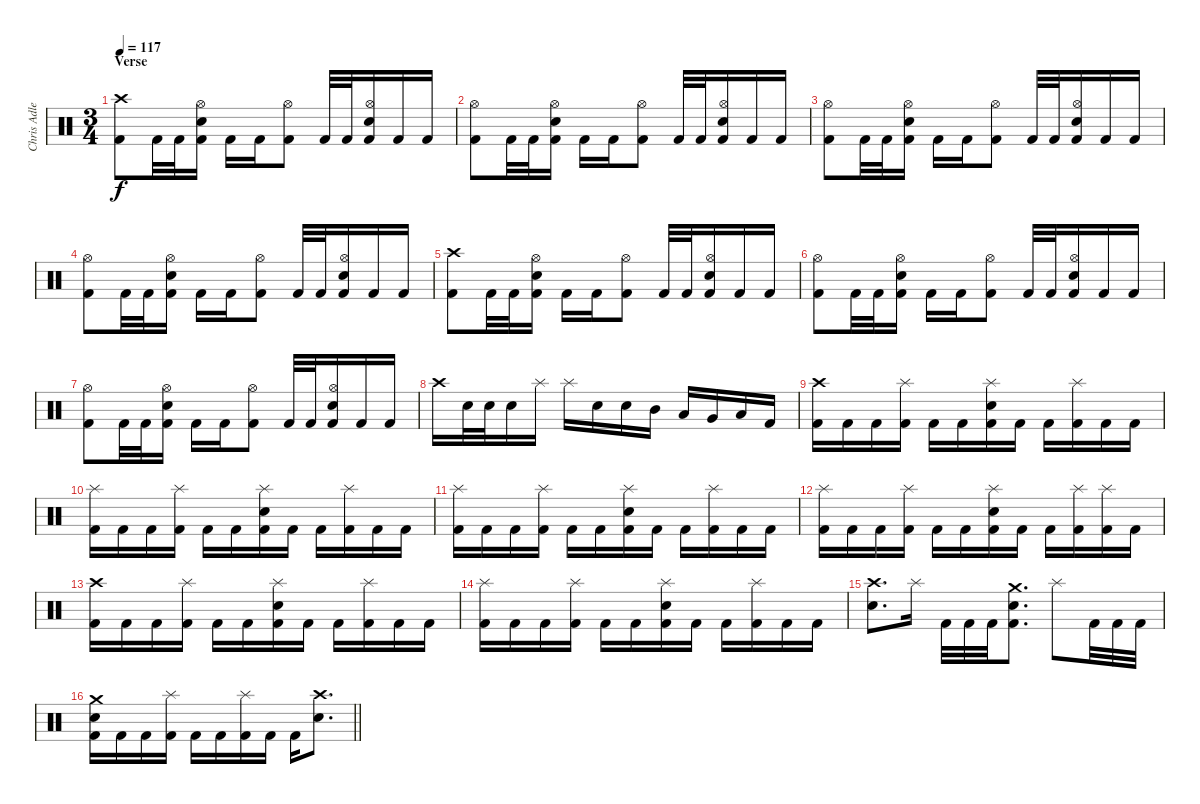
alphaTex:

\track ("Chris Adler" "Chris Adle") {instrument percussion}
\staff {score}
\articulation defaults
\ts (3 4)
\section ("" "Verse")
\tempo 117
\clef neutral
\ks c
("Crash high (hit)" "Kick (hit) 2").8{dy f} "Kick (hit) 2".32 "Kick (hit) 2".32 ("Hi-Hat (open)" "Electric Snare (hit)" "Kick (hit) 2").16 "Kick (hit) 2".16 "Kick (hit) 2".16 ("Hi-Hat (open)" "Kick (hit) 2").8 "Kick (hit) 2".32 "Kick (hit) 2".32 ("Hi-Hat (open)" "Electric Snare (hit)" "Kick (hit) 2").16 "Kick (hit) 2".16 "Kick (hit) 2".16 |
("Hi-Hat (open)" "Kick (hit) 2").8 "Kick (hit) 2".32 "Kick (hit) 2".32 ("Hi-Hat (open)" "Electric Snare (hit)" "Kick (hit) 2").16 "Kick (hit) 2".16 "Kick (hit) 2".16 ("Hi-Hat (open)" "Kick (hit) 2").8 "Kick (hit) 2".32 "Kick (hit) 2".32 ("Hi-Hat (open)" "Electric Snare (hit)" "Kick (hit) 2").16 "Kick (hit) 2".16 "Kick (hit) 2".16 |
("Hi-Hat (open)" "Kick (hit) 2").8 "Kick (hit) 2".32 "Kick (hit) 2".32 ("Hi-Hat (open)" "Electric Snare (hit)" "Kick (hit) 2").16 "Kick (hit) 2".16 "Kick (hit) 2".16 ("Hi-Hat (open)" "Kick (hit) 2").8 "Kick (hit) 2".32 "Kick (hit) 2".32 ("Hi-Hat (open)" "Electric Snare (hit)" "Kick (hit) 2").16 "Kick (hit) 2".16 "Kick (hit) 2".16 |
("Hi-Hat (open)" "Kick (hit) 2").8 "Kick (hit) 2".32 "Kick (hit) 2".32 ("Hi-Hat (open)" "Electric Snare (hit)" "Kick (hit) 2").16 "Kick (hit) 2".16 "Kick (hit) 2".16 ("Hi-Hat (open)" "Kick (hit) 2").8 "Kick (hit) 2".32 "Kick (hit) 2".32 ("Hi-Hat (open)" "Electric Snare (hit)" "Kick (hit) 2").16 "Kick (hit) 2".16 "Kick (hit) 2".16 |
("Crash high (hit)" "Kick (hit) 2").8 "Kick (hit) 2".32 "Kick (hit) 2".32 ("Hi-Hat (open)" "Electric Snare (hit)" "Kick (hit) 2").16 "Kick (hit) 2".16 "Kick (hit) 2".16 ("Hi-Hat (open)" "Kick (hit) 2").8 "Kick (hit) 2".32 "Kick (hit) 2".32 ("Hi-Hat (open)" "Electric Snare (hit)" "Kick (hit) 2").16 "Kick (hit) 2".16 "Kick (hit) 2".16 |
("Hi-Hat (open)" "Kick (hit) 2").8 "Kick (hit) 2".32 "Kick (hit) 2".32 ("Hi-Hat (open)" "Electric Snare (hit)" "Kick (hit) 2").16 "Kick (hit) 2".16 "Kick (hit) 2".16 ("Hi-Hat (open)" "Kick (hit) 2").8 "Kick (hit) 2".32 "Kick (hit) 2".32 ("Hi-Hat (open)" "Electric Snare (hit)" "Kick (hit) 2").16 "Kick (hit) 2".16 "Kick (hit) 2".16 |
("Hi-Hat (open)" "Kick (hit) 2").8 "Kick (hit) 2".32 "Kick (hit) 2".32 ("Hi-Hat (open)" "Electric Snare (hit)" "Kick (hit) 2").16 "Kick (hit) 2".16 "Kick (hit) 2".16 ("Hi-Hat (open)" "Kick (hit) 2").8 "Kick (hit) 2".32 "Kick (hit) 2".32 ("Hi-Hat (open)" "Electric Snare (hit)" "Kick (hit) 2").16 "Kick (hit) 2".16 "Kick (hit) 2".16 |
"Crash high (hit)".16 "Electric Snare (hit)".32 "Electric Snare (hit)".32 "Electric Snare (hit)".16 "Splash (hit)".16 "Splash (hit)".16 "Electric Snare (hit)".16 "Electric Snare (hit)".16 "Mid Tom (hit)".16 "Low Tom (hit)".16 "Very Low Tom (hit)".16 "Low Floor Tom (hit)".16 "Kick (hit) 2".16 |
("Crash high (hit)" "Kick (hit) 2").16 "Kick (hit) 2".16 "Kick (hit) 2".16 ("Splash (hit)" "Kick (hit) 2").16 "Kick (hit) 2".16 "Kick (hit) 2".16 ("Splash (hit)" "Electric Snare (hit)" "Kick (hit) 2").16 "Kick (hit) 2".16 "Kick (hit) 2".16 ("Splash (hit)" "Kick (hit) 2").16 "Kick (hit) 2".16 "Kick (hit) 2".16 |
("Splash (hit)" "Kick (hit) 2").16 "Kick (hit) 2".16 "Kick (hit) 2".16 ("Splash (hit)" "Kick (hit) 2").16 "Kick (hit) 2".16 "Kick (hit) 2".16 ("Splash (hit)" "Electric Snare (hit)" "Kick (hit) 2").16 "Kick (hit) 2".16 "Kick (hit) 2".16 ("Splash (hit)" "Kick (hit) 2").16 "Kick (hit) 2".16 "Kick (hit) 2".16 |
("Splash (hit)" "Kick (hit) 2").16 "Kick (hit) 2".16 "Kick (hit) 2".16 ("Splash (hit)" "Kick (hit) 2").16 "Kick (hit) 2".16 "Kick (hit) 2".16 ("Splash (hit)" "Electric Snare (hit)" "Kick (hit) 2").16 "Kick (hit) 2".16 "Kick (hit) 2".16 ("Splash (hit)" "Kick (hit) 2").16 "Kick (hit) 2".16 "Kick (hit) 2".16 |
("Splash (hit)" "Kick (hit) 2").16 "Kick (hit) 2".16 "Kick (hit) 2".16 ("Splash (hit)" "Kick (hit) 2").16 "Kick (hit) 2".16 "Kick (hit) 2".16 ("Splash (hit)" "Electric Snare (hit)" "Kick (hit) 2").16 "Kick (hit) 2".16 "Kick (hit) 2".16 ("Splash (hit)" "Kick (hit) 2").16 ("Splash (hit)" "Kick (hit) 2").16 "Kick (hit) 2".16 |
("Crash high (hit)" "Kick (hit) 2").16 "Kick (hit) 2".16 "Kick (hit) 2".16 ("Splash (hit)" "Kick (hit) 2").16 "Kick (hit) 2".16 "Kick (hit) 2".16 ("Splash (hit)" "Electric Snare (hit)" "Kick (hit) 2").16 "Kick (hit) 2".16 "Kick (hit) 2".16 ("Splash (hit)" "Kick (hit) 2").16 "Kick (hit) 2".16 "Kick (hit) 2".16 |
("Splash (hit)" "Kick (hit) 2").16 "Kick (hit) 2".16 "Kick (hit) 2".16 ("Splash (hit)" "Kick (hit) 2").16 "Kick (hit) 2".16 "Kick (hit) 2".16 ("Splash (hit)" "Electric Snare (hit)" "Kick (hit) 2").16 "Kick (hit) 2".16 "Kick (hit) 2".16 ("Splash (hit)" "Kick (hit) 2").16 "Kick (hit) 2".16 "Kick (hit) 2".16 |
("Crash high (hit)" "Electric Snare (hit)").8{d} "Splash (hit)".16 "Kick (hit) 2".32 "Kick (hit) 2".32 "Kick (hit) 2".32 ("Crash medium (hit)" "Electric Snare (hit)" "Kick (hit) 2").8{d} "Splash (hit)".8 "Kick (hit) 2".32 "Kick (hit) 2".32 "Kick (hit) 2".32 |
\barLineRight lightlight
("Crash medium (hit)" "Electric Snare (hit)" "Kick (hit) 2").16 "Kick (hit) 2".16 "Kick (hit) 2".16 ("Splash (hit)" "Kick (hit) 2").16 "Kick (hit) 2".16 "Kick (hit) 2".16 ("Splash (hit)" "Kick (hit) 2").16 "Kick (hit) 2".16 "Kick (hit) 2".16 ("Crash high (hit)" "Electric Snare (hit)").8{d}
